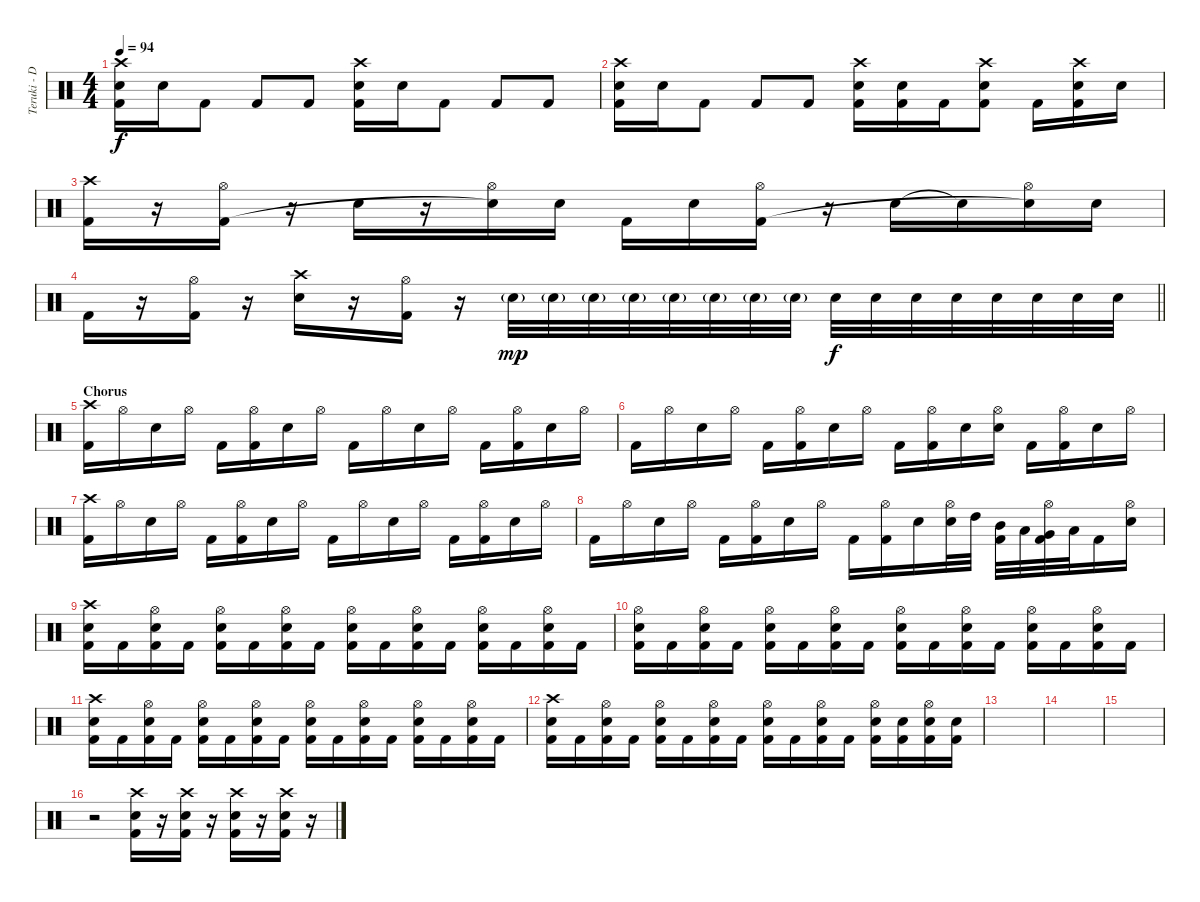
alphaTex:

\track ("Teruki - Drums" "Teruki - D") {instrument percussion}
\staff {score}
\articulation defaults
\ts (4 4)
\tempo 94
\clef neutral
\ks c
("Crash high (hit)" "Electric Snare (hit)" "Kick (hit) 2").16{dy f} "Electric Snare (hit)".16 "Kick (hit) 2".8 "Kick (hit) 2".8 "Kick (hit) 2".8 ("Crash high (hit)" "Electric Snare (hit)" "Kick (hit) 2").16 "Electric Snare (hit)".16 "Kick (hit) 2".8 "Kick (hit) 2".8 "Kick (hit) 2".8 |
("Crash high (hit)" "Electric Snare (hit)" "Kick (hit) 2").16 "Electric Snare (hit)".16 "Kick (hit) 2".8 "Kick (hit) 2".8 "Kick (hit) 2".8 ("Crash high (hit)" "Electric Snare (hit)" "Kick (hit) 2").16 ("Electric Snare (hit)" "Kick (hit) 2").16 "Kick (hit) 2".16 ("Crash high (hit)" "Electric Snare (hit)" "Kick (hit) 2").8 "Kick (hit) 2".16 ("Crash high (hit)" "Electric Snare (hit)" "Kick (hit) 2").16 "Electric Snare (hit)".16 |
("Crash high (hit)" "Kick (hit) 2").16 r.16 ("Hi-Hat (open)" "Kick (hit) 2").16 r.16 "Electric Snare (hit)".16 r.16 ("Hi-Hat (open)" "Snare (hit)"{t}).16 "Electric Snare (hit)".16 "Kick (hit) 2".16 "Electric Snare (hit)".16 ("Hi-Hat (open)" "Kick (hit) 2").16 r.16 "Electric Snare (hit)".16 "Snare (hit)"{t}.16 ("Hi-Hat (open)" "Electric Snare (hit)"{t}).16 "Electric Snare (hit)".16 |
\barLineRight lightlight "Kick (hit) 2".16
r.16 ("Hi-Hat (open)" "Kick (hit) 2").16 r.16 ("Crash high (hit)" "Electric Snare (hit)").16 r.16 ("Hi-Hat (open)" "Kick (hit) 2").16 r.16 "Electric Snare (hit)"{g}.32{dy mp} "Electric Snare (hit)"{g}.32 "Electric Snare (hit)"{g}.32 "Electric Snare (hit)"{g}.32 "Electric Snare (hit)"{g}.32 "Electric Snare (hit)"{g}.32 "Electric Snare (hit)"{g}.32 "Electric Snare (hit)"{g}.32 "Electric Snare (hit)".32{dy f} "Electric Snare (hit)".32 "Electric Snare (hit)".32 "Electric Snare (hit)".32 "Electric Snare (hit)".32 "Electric Snare (hit)".32 "Electric Snare (hit)".32 "Electric Snare (hit)".32 |
\section ("" "Chorus")
("Crash high (hit)" "Kick (hit) 2").16 "Hi-Hat (open)".16 "Electric Snare (hit)".16 "Hi-Hat (open)".16 "Kick (hit) 2".16 ("Hi-Hat (open)" "Kick (hit) 2").16 "Electric Snare (hit)".16 "Hi-Hat (open)".16 "Kick (hit) 2".16 "Hi-Hat (open)".16 "Electric Snare (hit)".16 "Hi-Hat (open)".16 "Kick (hit) 2".16 ("Hi-Hat (open)" "Kick (hit) 2").16 "Electric Snare (hit)".16 "Hi-Hat (open)".16 |
"Kick (hit) 2".16 "Hi-Hat (open)".16 "Electric Snare (hit)".16 "Hi-Hat (open)".16 "Kick (hit) 2".16 ("Hi-Hat (open)" "Kick (hit) 2").16 "Electric Snare (hit)".16 "Hi-Hat (open)".16 "Kick (hit) 2".16 ("Hi-Hat (open)" "Kick (hit) 2").16 "Electric Snare (hit)".16 ("Hi-Hat (open)" "Electric Snare (hit)").16 "Kick (hit) 2".16 ("Hi-Hat (open)" "Kick (hit) 2").16 "Electric Snare (hit)".16 "Hi-Hat (open)".16 |
("Crash high (hit)" "Kick (hit) 2").16 "Hi-Hat (open)".16 "Electric Snare (hit)".16 "Hi-Hat (open)".16 "Kick (hit) 2".16 ("Hi-Hat (open)" "Kick (hit) 2").16 "Electric Snare (hit)".16 "Hi-Hat (open)".16 "Kick (hit) 2".16 "Hi-Hat (open)".16 "Electric Snare (hit)".16 "Hi-Hat (open)".16 "Kick (hit) 2".16 ("Hi-Hat (open)" "Kick (hit) 2").16 "Electric Snare (hit)".16 "Hi-Hat (open)".16 |
"Kick (hit) 2".16 "Hi-Hat (open)".16 "Electric Snare (hit)".16 "Hi-Hat (open)".16 "Kick (hit) 2".16 ("Hi-Hat (open)" "Kick (hit) 2").16 "Electric Snare (hit)".16 "Hi-Hat (open)".16 "Kick (hit) 2".16 ("Hi-Hat (open)" "Kick (hit) 2").16 "Electric Snare (hit)".16 ("Hi-Hat (open)" "Electric Snare (hit)").32 "High Tom (hit)".32 ("Mid Tom (hit)" "Kick (hit) 2").32 "Low Tom (hit)".32 ("Hi-Hat (open)" "Very Low Tom (hit)" "Kick (hit) 2").32 "Low Floor Tom (hit)".32 "Kick (hit) 2".16 ("Hi-Hat (open)" "Electric Snare (hit)").16 |
("Crash high (hit)" "Electric Snare (hit)" "Kick (hit) 2").16 "Kick (hit) 2".16 ("Hi-Hat (open)" "Electric Snare (hit)" "Kick (hit) 2").16 "Kick (hit) 2".16 ("Hi-Hat (open)" "Electric Snare (hit)" "Kick (hit) 2").16 "Kick (hit) 2".16 ("Hi-Hat (open)" "Electric Snare (hit)" "Kick (hit) 2").16 "Kick (hit) 2".16 ("Hi-Hat (open)" "Electric Snare (hit)" "Kick (hit) 2").16 "Kick (hit) 2".16 ("Hi-Hat (open)" "Electric Snare (hit)" "Kick (hit) 2").16 "Kick (hit) 2".16 ("Hi-Hat (open)" "Electric Snare (hit)" "Kick (hit) 2").16 "Kick (hit) 2".16 ("Hi-Hat (open)" "Electric Snare (hit)" "Kick (hit) 2").16 "Kick (hit) 2".16 |
("Hi-Hat (open)" "Electric Snare (hit)" "Kick (hit) 2").16 "Kick (hit) 2".16 ("Hi-Hat (open)" "Electric Snare (hit)" "Kick (hit) 2").16 "Kick (hit) 2".16 ("Hi-Hat (open)" "Electric Snare (hit)" "Kick (hit) 2").16 "Kick (hit) 2".16 ("Hi-Hat (open)" "Electric Snare (hit)" "Kick (hit) 2").16 "Kick (hit) 2".16 ("Hi-Hat (open)" "Electric Snare (hit)" "Kick (hit) 2").16 "Kick (hit) 2".16 ("Hi-Hat (open)" "Electric Snare (hit)" "Kick (hit) 2").16 "Kick (hit) 2".16 ("Hi-Hat (open)" "Electric Snare (hit)" "Kick (hit) 2").16 "Kick (hit) 2".16 ("Hi-Hat (open)" "Electric Snare (hit)" "Kick (hit) 2").16 "Kick (hit) 2".16 |
("Crash high (hit)" "Electric Snare (hit)" "Kick (hit) 2").16 "Kick (hit) 2".16 ("Hi-Hat (open)" "Electric Snare (hit)" "Kick (hit) 2").16 "Kick (hit) 2".16 ("Hi-Hat (open)" "Electric Snare (hit)" "Kick (hit) 2").16 "Kick (hit) 2".16 ("Hi-Hat (open)" "Electric Snare (hit)" "Kick (hit) 2").16 "Kick (hit) 2".16 ("Hi-Hat (open)" "Electric Snare (hit)" "Kick (hit) 2").16 "Kick (hit) 2".16 ("Hi-Hat (open)" "Electric Snare (hit)" "Kick (hit) 2").16 "Kick (hit) 2".16 ("Hi-Hat (open)" "Electric Snare (hit)" "Kick (hit) 2").16 "Kick (hit) 2".16 ("Hi-Hat (open)" "Electric Snare (hit)" "Kick (hit) 2").16 "Kick (hit) 2".16 |
("Crash high (hit)" "Electric Snare (hit)" "Kick (hit) 2").16 "Kick (hit) 2".16 ("Hi-Hat (open)" "Electric Snare (hit)" "Kick (hit) 2").16 "Kick (hit) 2".16 ("Hi-Hat (open)" "Electric Snare (hit)" "Kick (hit) 2").16 "Kick (hit) 2".16 ("Hi-Hat (open)" "Electric Snare (hit)" "Kick (hit) 2").16 "Kick (hit) 2".16 ("Hi-Hat (open)" "Electric Snare (hit)" "Kick (hit) 2").16 "Kick (hit) 2".16 ("Hi-Hat (open)" "Electric Snare (hit)" "Kick (hit) 2").16 "Kick (hit) 2".16 ("Hi-Hat (open)" "Electric Snare (hit)" "Kick (hit) 2").16 ("Electric Snare (hit)" "Kick (hit) 2").16 ("Hi-Hat (open)" "Electric Snare (hit)" "Kick (hit) 2").16 ("Electric Snare (hit)" "Kick (hit) 2").16 |
|
|
|
r.2 ("Crash high (hit)" "Electric Snare (hit)" "Kick (hit) 2").16 r.16 ("Crash high (hit)" "Electric Snare (hit)" "Kick (hit) 2").16 r.16 ("Crash high (hit)" "Electric Snare (hit)" "Kick (hit) 2").16 r.16 ("Crash high (hit)" "Electric Snare (hit)" "Kick (hit) 2").16 r.16
